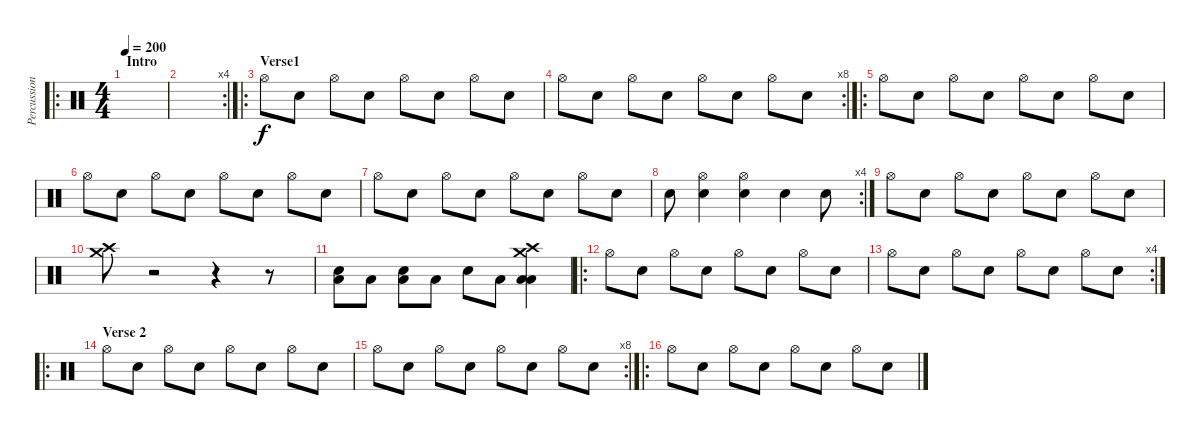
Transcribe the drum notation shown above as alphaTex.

\track ("Percussion" "Percussion") {instrument percussion}
\staff {score}
\articulation defaults
\ro
\ts (4 4)
\section ("" "Intro")
\tempo 200
\clef neutral
\ks c
|
\rc 4
|
\ro
\section ("" "Verse1")
"Hi-Hat (open)".8 "Snare (hit) 2".8 "Hi-Hat (open)".8 "Snare (hit) 2".8 "Hi-Hat (open)".8 "Snare (hit) 2".8 "Hi-Hat (open)".8 "Snare (hit) 2".8 |
\rc 8 "Hi-Hat (open)".8 "Snare (hit) 2".8 "Hi-Hat (open)".8 "Snare (hit) 2".8 "Hi-Hat (open)".8 "Snare (hit) 2".8 "Hi-Hat (open)".8 "Snare (hit) 2".8
|
\ro "Hi-Hat (open)".8 "Snare (hit) 2".8 "Hi-Hat (open)".8 "Snare (hit) 2".8 "Hi-Hat (open)".8 "Snare (hit) 2".8 "Hi-Hat (open)".8 "Snare (hit) 2".8
|
"Hi-Hat (open)".8 "Snare (hit) 2".8 "Hi-Hat (open)".8 "Snare (hit) 2".8 "Hi-Hat (open)".8 "Snare (hit) 2".8 "Hi-Hat (open)".8 "Snare (hit) 2".8 |
"Hi-Hat (open)".8 "Snare (hit) 2".8 "Hi-Hat (open)".8 "Snare (hit) 2".8 "Hi-Hat (open)".8 "Snare (hit) 2".8 "Hi-Hat (open)".8 "Snare (hit) 2".8 |
\rc 4 "Electric Snare (hit)".8
("Hi-Hat (open)" "Snare (hit) 2").4 ("Hi-Hat (open)" "Snare (hit) 2").4 "Snare (hit) 2".4 "Snare (hit) 2".8 |
"Hi-Hat (open)".8 "Snare (hit) 2".8 "Hi-Hat (open)".8 "Snare (hit) 2".8 "Hi-Hat (open)".8 "Snare (hit) 2".8 "Hi-Hat (open)".8 "Snare (hit) 2".8 |
("Crash medium (hit)" "Crash high (hit)").8 r.2 r.4 r.8 |
("Snare (hit) 2" "Low Tom (hit)").8 "Low Tom (hit)".8 ("Electric Snare (hit)" "Low Tom (hit)").8 "Low Tom (hit)".8 "Snare (hit) 2".8 "Low Tom (hit)".8 ("Crash high (hit)" "Low Floor Tom (hit)" "Low Tom (hit)" "Crash medium (hit)").4 |
\ro "Hi-Hat (open)".8 "Snare (hit) 2".8 "Hi-Hat (open)".8 "Snare (hit) 2".8 "Hi-Hat (open)".8 "Snare (hit) 2".8 "Hi-Hat (open)".8 "Snare (hit) 2".8
|
\rc 4 "Hi-Hat (open)".8 "Snare (hit) 2".8 "Hi-Hat (open)".8 "Snare (hit) 2".8 "Hi-Hat (open)".8 "Snare (hit) 2".8 "Hi-Hat (open)".8 "Snare (hit) 2".8
|
\ro
\section ("" "Verse 2")
"Hi-Hat (open)".8 "Snare (hit) 2".8 "Hi-Hat (open)".8 "Snare (hit) 2".8 "Hi-Hat (open)".8 "Snare (hit) 2".8 "Hi-Hat (open)".8 "Snare (hit) 2".8 |
\rc 8 "Hi-Hat (open)".8 "Snare (hit) 2".8 "Hi-Hat (open)".8 "Snare (hit) 2".8 "Hi-Hat (open)".8 "Snare (hit) 2".8 "Hi-Hat (open)".8 "Snare (hit) 2".8
|
\ro "Hi-Hat (open)".8 "Snare (hit) 2".8 "Hi-Hat (open)".8 "Snare (hit) 2".8 "Hi-Hat (open)".8 "Snare (hit) 2".8 "Hi-Hat (open)".8 "Snare (hit) 2".8
